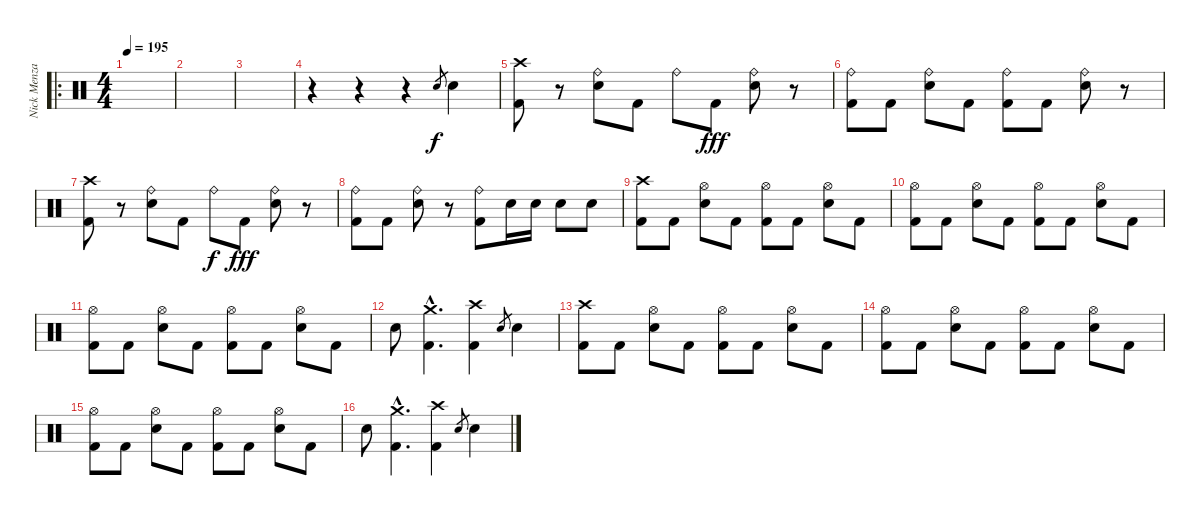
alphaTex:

\track ("Nick Menza" "Nick Menza") {instrument percussion}
\staff {score}
\articulation defaults
\ro
\ts (4 4)
\tempo 195
\clef neutral
\ks c
|
|
|
r.4 r.4 r.4 "Electric Snare (hit)".8{gr} "Electric Snare (hit)".4 |
("Kick (hit) 2" "Crash high (hit)").8 r.8 ("Electric Snare (hit)" "Ride (bell)").8 "Kick (hit) 2".8 "Ride (bell)".8{dy f} "Kick (hit) 2".8{dy fff} ("Electric Snare (hit)" "Ride (bell)").8 r.8 |
("Kick (hit) 2" "Ride (bell)").8 "Kick (hit) 2".8 ("Electric Snare (hit)" "Ride (bell)").8 "Kick (hit) 2".8 ("Kick (hit) 2" "Ride (bell)").8 "Kick (hit) 2".8 ("Electric Snare (hit)" "Ride (bell)").8 r.8 |
("Kick (hit) 2" "Crash high (hit)").8 r.8 ("Electric Snare (hit)" "Ride (bell)").8 "Kick (hit) 2".8 "Ride (bell)".8{dy f} "Kick (hit) 2".8{dy fff} ("Electric Snare (hit)" "Ride (bell)").8 r.8 |
("Kick (hit) 2" "Ride (bell)").8 "Kick (hit) 2".8 ("Electric Snare (hit)" "Ride (bell)").8 r.8 ("Kick (hit) 2" "Ride (bell)").8 "Electric Snare (hit)".16 "Electric Snare (hit)".16 "Electric Snare (hit)".8 "Electric Snare (hit)".8 |
("Kick (hit) 2" "Crash high (hit)").8 "Kick (hit) 2".8 ("Electric Snare (hit)" "Hi-Hat (open)").8 "Kick (hit) 2".8 ("Kick (hit) 2" "Hi-Hat (open)").8 "Kick (hit) 2".8 ("Electric Snare (hit)" "Hi-Hat (open)").8 "Kick (hit) 2".8 |
("Kick (hit) 2" "Hi-Hat (open)").8 "Kick (hit) 2".8 ("Electric Snare (hit)" "Hi-Hat (open)").8 "Kick (hit) 2".8 ("Kick (hit) 2" "Hi-Hat (open)").8 "Kick (hit) 2".8 ("Electric Snare (hit)" "Hi-Hat (open)").8 "Kick (hit) 2".8 |
("Kick (hit) 2" "Hi-Hat (open)").8 "Kick (hit) 2".8 ("Electric Snare (hit)" "Hi-Hat (open)").8 "Kick (hit) 2".8 ("Kick (hit) 2" "Hi-Hat (open)").8 "Kick (hit) 2".8 ("Electric Snare (hit)" "Hi-Hat (open)").8 "Kick (hit) 2".8 |
"Electric Snare (hit)".8 ("Kick (hit) 2"{hac} "Crash medium (hit)"{hac}).4{d} ("Kick (hit) 2" "Crash high (hit)").4 "Electric Snare (hit)".8{gr} "Electric Snare (hit)".4 |
("Kick (hit) 2" "Crash high (hit)").8 "Kick (hit) 2".8 ("Electric Snare (hit)" "Hi-Hat (open)").8 "Kick (hit) 2".8 ("Kick (hit) 2" "Hi-Hat (open)").8 "Kick (hit) 2".8 ("Electric Snare (hit)" "Hi-Hat (open)").8 "Kick (hit) 2".8 |
("Kick (hit) 2" "Hi-Hat (open)").8 "Kick (hit) 2".8 ("Electric Snare (hit)" "Hi-Hat (open)").8 "Kick (hit) 2".8 ("Kick (hit) 2" "Hi-Hat (open)").8 "Kick (hit) 2".8 ("Electric Snare (hit)" "Hi-Hat (open)").8 "Kick (hit) 2".8 |
("Kick (hit) 2" "Hi-Hat (open)").8 "Kick (hit) 2".8 ("Electric Snare (hit)" "Hi-Hat (open)").8 "Kick (hit) 2".8 ("Kick (hit) 2" "Hi-Hat (open)").8 "Kick (hit) 2".8 ("Electric Snare (hit)" "Hi-Hat (open)").8 "Kick (hit) 2".8 |
"Electric Snare (hit)".8 ("Kick (hit) 2"{hac} "Crash medium (hit)"{hac}).4{d} ("Kick (hit) 2" "Crash high (hit)").4 "Electric Snare (hit)".8{gr} "Electric Snare (hit)".4
